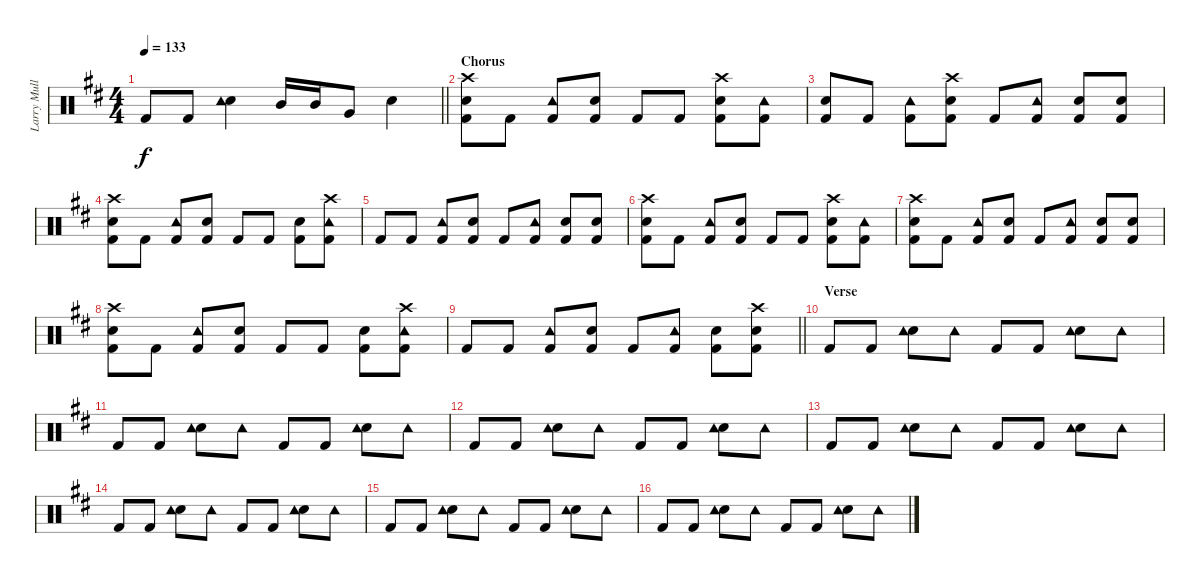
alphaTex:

\track ("Larry Mullen Jr." "Larry Mull") {instrument percussion}
\staff {score}
\articulation defaults
\ts (4 4)
\tempo 133
\clef neutral
\barLineRight lightlight
\ks d "Kick (hit) 2".8{dy f} "Kick (hit) 2".8
("Snare (hit) 2" "Tambourine (hit)").4 "Mid Tom (hit)".16 "Mid Tom (hit)".16 "Very Low Tom (hit)".8 "Snare (hit) 2".4 |
\section ("" "Chorus")
("Kick (hit) 2" "Crash high (hit)" "Snare (hit) 2").8 "Kick (hit) 2".8 ("Kick (hit) 2" "Tambourine (hit)").8 ("Kick (hit) 2" "Snare (hit) 2").8 "Kick (hit) 2".8 "Kick (hit) 2".8 ("Kick (hit) 2" "Snare (hit) 2" "Crash high (hit)").8 ("Kick (hit) 2" "Tambourine (hit)").8 |
("Kick (hit) 2" "Snare (hit) 2").8 "Kick (hit) 2".8 ("Kick (hit) 2" "Tambourine (hit)").8 ("Kick (hit) 2" "Snare (hit) 2" "Crash high (hit)").8 "Kick (hit) 2".8 ("Kick (hit) 2" "Tambourine (hit)").8 ("Kick (hit) 2" "Snare (hit) 2").8 ("Kick (hit) 2" "Snare (hit) 2").8 |
("Kick (hit) 2" "Crash high (hit)" "Snare (hit) 2").8 "Kick (hit) 2".8 ("Kick (hit) 2" "Tambourine (hit)").8 ("Kick (hit) 2" "Snare (hit) 2").8 "Kick (hit) 2".8 "Kick (hit) 2".8 ("Kick (hit) 2" "Snare (hit) 2").8 ("Kick (hit) 2" "Tambourine (hit)" "Crash high (hit)").8 |
"Kick (hit) 2".8 "Kick (hit) 2".8 ("Kick (hit) 2" "Tambourine (hit)").8 ("Kick (hit) 2" "Snare (hit) 2").8 "Kick (hit) 2".8 ("Kick (hit) 2" "Tambourine (hit)").8 ("Kick (hit) 2" "Snare (hit) 2").8 ("Kick (hit) 2" "Snare (hit) 2").8 |
("Kick (hit) 2" "Crash high (hit)" "Snare (hit) 2").8 "Kick (hit) 2".8 ("Kick (hit) 2" "Tambourine (hit)").8 ("Kick (hit) 2" "Snare (hit) 2").8 "Kick (hit) 2".8 "Kick (hit) 2".8 ("Kick (hit) 2" "Snare (hit) 2" "Crash high (hit)").8 ("Kick (hit) 2" "Tambourine (hit)").8 |
("Kick (hit) 2" "Snare (hit) 2" "Crash high (hit)").8 "Kick (hit) 2".8 ("Kick (hit) 2" "Tambourine (hit)").8 ("Kick (hit) 2" "Snare (hit) 2").8 "Kick (hit) 2".8 ("Kick (hit) 2" "Tambourine (hit)").8 ("Kick (hit) 2" "Snare (hit) 2").8 ("Kick (hit) 2" "Snare (hit) 2").8 |
("Kick (hit) 2" "Crash high (hit)" "Snare (hit) 2").8 "Kick (hit) 2".8 ("Kick (hit) 2" "Tambourine (hit)").8 ("Kick (hit) 2" "Snare (hit) 2").8 "Kick (hit) 2".8 "Kick (hit) 2".8 ("Kick (hit) 2" "Snare (hit) 2").8 ("Kick (hit) 2" "Tambourine (hit)" "Crash high (hit)").8 |
\barLineRight lightlight "Kick (hit) 2".8 "Kick (hit) 2".8
("Kick (hit) 2" "Tambourine (hit)").8 ("Kick (hit) 2" "Snare (hit) 2").8 "Kick (hit) 2".8 ("Kick (hit) 2" "Tambourine (hit)").8 ("Kick (hit) 2" "Snare (hit) 2").8 ("Kick (hit) 2" "Snare (hit) 2" "Crash high (hit)").8 |
\section ("" "Verse")
"Kick (hit) 2".8 "Kick (hit) 2".8 ("Snare (hit) 2" "Tambourine (hit)").8 "Tambourine (hit)".8 "Kick (hit) 2".8 "Kick (hit) 2".8 ("Snare (hit) 2" "Tambourine (hit)").8 "Tambourine (hit)".8 |
"Kick (hit) 2".8 "Kick (hit) 2".8 ("Snare (hit) 2" "Tambourine (hit)").8 "Tambourine (hit)".8 "Kick (hit) 2".8 "Kick (hit) 2".8 ("Snare (hit) 2" "Tambourine (hit)").8 "Tambourine (hit)".8 |
"Kick (hit) 2".8 "Kick (hit) 2".8 ("Snare (hit) 2" "Tambourine (hit)").8 "Tambourine (hit)".8 "Kick (hit) 2".8 "Kick (hit) 2".8 ("Snare (hit) 2" "Tambourine (hit)").8 "Tambourine (hit)".8 |
"Kick (hit) 2".8 "Kick (hit) 2".8 ("Snare (hit) 2" "Tambourine (hit)").8 "Tambourine (hit)".8 "Kick (hit) 2".8 "Kick (hit) 2".8 ("Snare (hit) 2" "Tambourine (hit)").8 "Tambourine (hit)".8 |
"Kick (hit) 2".8 "Kick (hit) 2".8 ("Snare (hit) 2" "Tambourine (hit)").8 "Tambourine (hit)".8 "Kick (hit) 2".8 "Kick (hit) 2".8 ("Snare (hit) 2" "Tambourine (hit)").8 "Tambourine (hit)".8 |
"Kick (hit) 2".8 "Kick (hit) 2".8 ("Snare (hit) 2" "Tambourine (hit)").8 "Tambourine (hit)".8 "Kick (hit) 2".8 "Kick (hit) 2".8 ("Snare (hit) 2" "Tambourine (hit)").8 "Tambourine (hit)".8 |
"Kick (hit) 2".8 "Kick (hit) 2".8 ("Snare (hit) 2" "Tambourine (hit)").8 "Tambourine (hit)".8 "Kick (hit) 2".8 "Kick (hit) 2".8 ("Snare (hit) 2" "Tambourine (hit)").8 "Tambourine (hit)".8
